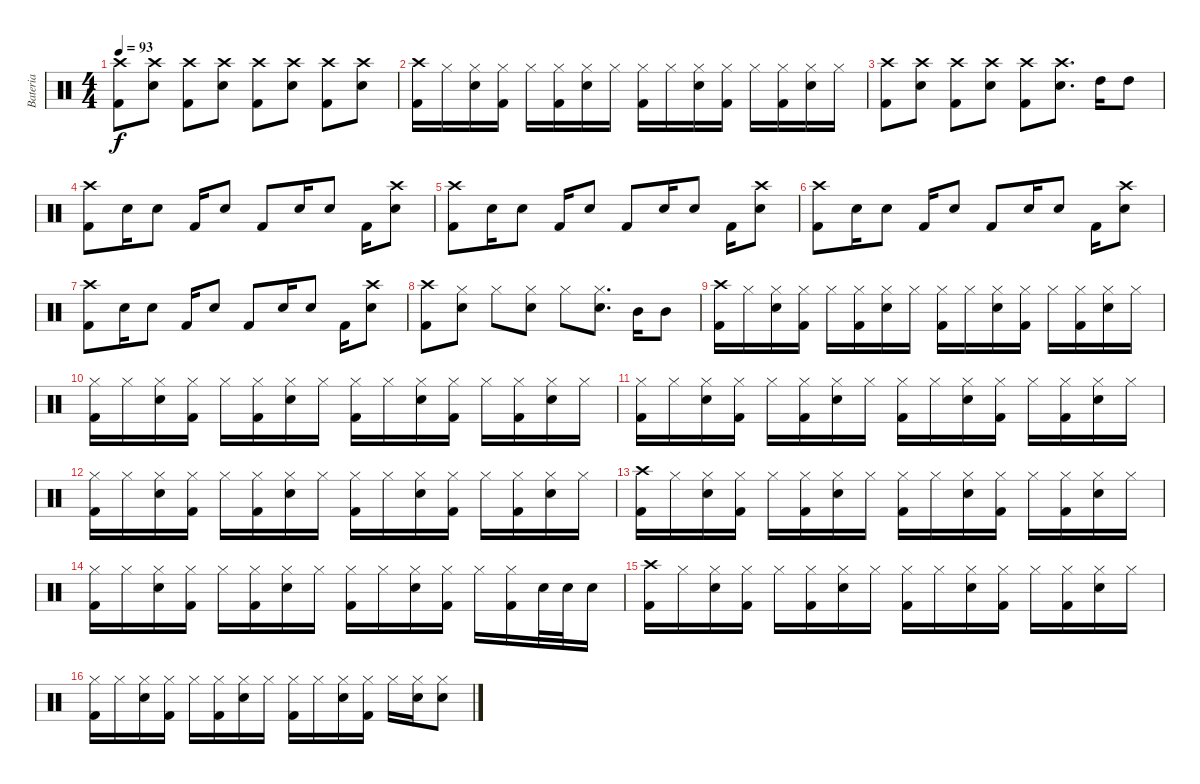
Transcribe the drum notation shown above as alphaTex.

\track ("Bateria" "Bateria") {instrument percussion}
\staff {score}
\articulation defaults
\ts (4 4)
\tempo 93
\clef neutral
\ks c
("Crash high (hit)" "Kick (hit) 2").8{dy f} ("Crash high (hit)" "Snare (hit) 2").8 ("Crash high (hit)" "Kick (hit) 2").8 ("Crash high (hit)" "Snare (hit) 2").8 ("Crash high (hit)" "Kick (hit) 2").8 ("Crash high (hit)" "Snare (hit) 2").8 ("Crash high (hit)" "Kick (hit) 2").8 ("Crash high (hit)" "Snare (hit) 2").8 |
("Crash high (hit)" "Kick (hit) 2").16 "Hi-Hat (closed)".16 ("Hi-Hat (closed)" "Snare (hit) 2").16 ("Hi-Hat (closed)" "Kick (hit) 2").16 "Hi-Hat (closed)".16 ("Hi-Hat (closed)" "Kick (hit) 2").16 ("Hi-Hat (closed)" "Snare (hit) 2").16 "Hi-Hat (closed)".16 ("Hi-Hat (closed)" "Kick (hit) 2").16 "Hi-Hat (closed)".16 ("Hi-Hat (closed)" "Snare (hit) 2").16 ("Hi-Hat (closed)" "Kick (hit) 2").16 "Hi-Hat (closed)".16 ("Hi-Hat (closed)" "Kick (hit) 2").16 ("Hi-Hat (closed)" "Snare (hit) 2").16 "Hi-Hat (closed)".16 |
("Crash high (hit)" "Kick (hit) 2").8 ("Crash high (hit)" "Snare (hit) 2").8 ("Crash high (hit)" "Kick (hit) 2").8 ("Crash high (hit)" "Snare (hit) 2").8 ("Crash high (hit)" "Kick (hit) 2").8 ("Crash high (hit)" "Snare (hit) 2").8{d} "High Tom (hit)".16 "High Tom (hit)".8 |
("Crash high (hit)" "Kick (hit) 2").8 "Snare (hit) 2".16 "Snare (hit) 2".8 "Kick (hit) 2".16 "Snare (hit) 2".8 "Kick (hit) 2".8 "Snare (hit) 2".16 "Snare (hit) 2".8 "Kick (hit) 2".16 ("Crash high (hit)" "Snare (hit) 2").8 |
("Crash high (hit)" "Kick (hit) 2").8 "Snare (hit) 2".16 "Snare (hit) 2".8 "Kick (hit) 2".16 "Snare (hit) 2".8 "Kick (hit) 2".8 "Snare (hit) 2".16 "Snare (hit) 2".8 "Kick (hit) 2".16 ("Crash high (hit)" "Snare (hit) 2").8 |
("Crash high (hit)" "Kick (hit) 2").8 "Snare (hit) 2".16 "Snare (hit) 2".8 "Kick (hit) 2".16 "Snare (hit) 2".8 "Kick (hit) 2".8 "Snare (hit) 2".16 "Snare (hit) 2".8 "Kick (hit) 2".16 ("Crash high (hit)" "Snare (hit) 2").8 |
("Crash high (hit)" "Kick (hit) 2").8 "Snare (hit) 2".16 "Snare (hit) 2".8 "Kick (hit) 2".16 "Snare (hit) 2".8 "Kick (hit) 2".8 "Snare (hit) 2".16 "Snare (hit) 2".8 "Kick (hit) 2".16 ("Crash high (hit)" "Snare (hit) 2").8 |
("Crash high (hit)" "Kick (hit) 2").8 ("Hi-Hat (closed)" "Snare (hit) 2").8 "Hi-Hat (closed)".8 ("Hi-Hat (closed)" "Snare (hit) 2").8 "Hi-Hat (closed)".8 ("Hi-Hat (closed)" "Snare (hit) 2").8{d} "Mid Tom (hit)".16 "Mid Tom (hit)".8 |
("Crash high (hit)" "Kick (hit) 2").16 "Hi-Hat (closed)".16 ("Hi-Hat (closed)" "Snare (hit) 2").16 ("Hi-Hat (closed)" "Kick (hit) 2").16 "Hi-Hat (closed)".16 ("Hi-Hat (closed)" "Kick (hit) 2").16 ("Hi-Hat (closed)" "Snare (hit) 2").16 "Hi-Hat (closed)".16 ("Hi-Hat (closed)" "Kick (hit) 2").16 "Hi-Hat (closed)".16 ("Hi-Hat (closed)" "Snare (hit) 2").16 ("Hi-Hat (closed)" "Kick (hit) 2").16 "Hi-Hat (closed)".16 ("Hi-Hat (closed)" "Kick (hit) 2").16 ("Hi-Hat (closed)" "Snare (hit) 2").16 "Hi-Hat (closed)".16 |
("Hi-Hat (closed)" "Kick (hit) 2").16 "Hi-Hat (closed)".16 ("Hi-Hat (closed)" "Snare (hit) 2").16 ("Hi-Hat (closed)" "Kick (hit) 2").16 "Hi-Hat (closed)".16 ("Hi-Hat (closed)" "Kick (hit) 2").16 ("Hi-Hat (closed)" "Snare (hit) 2").16 "Hi-Hat (closed)".16 ("Hi-Hat (closed)" "Kick (hit) 2").16 "Hi-Hat (closed)".16 ("Hi-Hat (closed)" "Snare (hit) 2").16 ("Hi-Hat (closed)" "Kick (hit) 2").16 "Hi-Hat (closed)".16 ("Hi-Hat (closed)" "Kick (hit) 2").16 ("Hi-Hat (closed)" "Snare (hit) 2").16 "Hi-Hat (closed)".16 |
("Hi-Hat (closed)" "Kick (hit) 2").16 "Hi-Hat (closed)".16 ("Hi-Hat (closed)" "Snare (hit) 2").16 ("Hi-Hat (closed)" "Kick (hit) 2").16 "Hi-Hat (closed)".16 ("Hi-Hat (closed)" "Kick (hit) 2").16 ("Hi-Hat (closed)" "Snare (hit) 2").16 "Hi-Hat (closed)".16 ("Hi-Hat (closed)" "Kick (hit) 2").16 "Hi-Hat (closed)".16 ("Hi-Hat (closed)" "Snare (hit) 2").16 ("Hi-Hat (closed)" "Kick (hit) 2").16 "Hi-Hat (closed)".16 ("Hi-Hat (closed)" "Kick (hit) 2").16 ("Hi-Hat (closed)" "Snare (hit) 2").16 "Hi-Hat (closed)".16 |
("Hi-Hat (closed)" "Kick (hit) 2").16 "Hi-Hat (closed)".16 ("Hi-Hat (closed)" "Snare (hit) 2").16 ("Hi-Hat (closed)" "Kick (hit) 2").16 "Hi-Hat (closed)".16 ("Hi-Hat (closed)" "Kick (hit) 2").16 ("Hi-Hat (closed)" "Snare (hit) 2").16 "Hi-Hat (closed)".16 ("Hi-Hat (closed)" "Kick (hit) 2").16 "Hi-Hat (closed)".16 ("Hi-Hat (closed)" "Snare (hit) 2").16 ("Hi-Hat (closed)" "Kick (hit) 2").16 "Hi-Hat (closed)".16 ("Hi-Hat (closed)" "Kick (hit) 2").16 ("Hi-Hat (closed)" "Snare (hit) 2").16 "Hi-Hat (closed)".16 |
("Crash high (hit)" "Kick (hit) 2").16 "Hi-Hat (closed)".16 ("Hi-Hat (closed)" "Snare (hit) 2").16 ("Hi-Hat (closed)" "Kick (hit) 2").16 "Hi-Hat (closed)".16 ("Hi-Hat (closed)" "Kick (hit) 2").16 ("Hi-Hat (closed)" "Snare (hit) 2").16 "Hi-Hat (closed)".16 ("Hi-Hat (closed)" "Kick (hit) 2").16 "Hi-Hat (closed)".16 ("Hi-Hat (closed)" "Snare (hit) 2").16 ("Hi-Hat (closed)" "Kick (hit) 2").16 "Hi-Hat (closed)".16 ("Hi-Hat (closed)" "Kick (hit) 2").16 ("Hi-Hat (closed)" "Snare (hit) 2").16 "Hi-Hat (closed)".16 |
("Hi-Hat (closed)" "Kick (hit) 2").16 "Hi-Hat (closed)".16 ("Hi-Hat (closed)" "Snare (hit) 2").16 ("Hi-Hat (closed)" "Kick (hit) 2").16 "Hi-Hat (closed)".16 ("Hi-Hat (closed)" "Kick (hit) 2").16 ("Hi-Hat (closed)" "Snare (hit) 2").16 "Hi-Hat (closed)".16 ("Hi-Hat (closed)" "Kick (hit) 2").16 "Hi-Hat (closed)".16 ("Hi-Hat (closed)" "Snare (hit) 2").16 ("Hi-Hat (closed)" "Kick (hit) 2").16 "Hi-Hat (closed)".16 ("Hi-Hat (closed)" "Kick (hit) 2").16 "Snare (hit) 2".32 "Snare (hit) 2".32 "Snare (hit) 2".16 |
("Crash high (hit)" "Kick (hit) 2").16 "Hi-Hat (closed)".16 ("Hi-Hat (closed)" "Snare (hit) 2").16 ("Hi-Hat (closed)" "Kick (hit) 2").16 "Hi-Hat (closed)".16 ("Hi-Hat (closed)" "Kick (hit) 2").16 ("Hi-Hat (closed)" "Snare (hit) 2").16 "Hi-Hat (closed)".16 ("Hi-Hat (closed)" "Kick (hit) 2").16 "Hi-Hat (closed)".16 ("Hi-Hat (closed)" "Snare (hit) 2").16 ("Hi-Hat (closed)" "Kick (hit) 2").16 "Hi-Hat (closed)".16 ("Hi-Hat (closed)" "Kick (hit) 2").16 ("Hi-Hat (closed)" "Snare (hit) 2").16 "Hi-Hat (closed)".16 |
("Hi-Hat (closed)" "Kick (hit) 2").16 "Hi-Hat (closed)".16 ("Hi-Hat (closed)" "Snare (hit) 2").16 ("Hi-Hat (closed)" "Kick (hit) 2").16 "Hi-Hat (closed)".16 ("Hi-Hat (closed)" "Kick (hit) 2").16 ("Hi-Hat (closed)" "Snare (hit) 2").16 "Hi-Hat (closed)".16 ("Hi-Hat (closed)" "Kick (hit) 2").16 "Hi-Hat (closed)".16 ("Hi-Hat (closed)" "Snare (hit) 2").16 ("Hi-Hat (closed)" "Kick (hit) 2").16 "Hi-Hat (closed)".16 ("Hi-Hat (closed)" "Snare (hit) 2").16 ("Hi-Hat (closed)" "Snare (hit) 2").8
